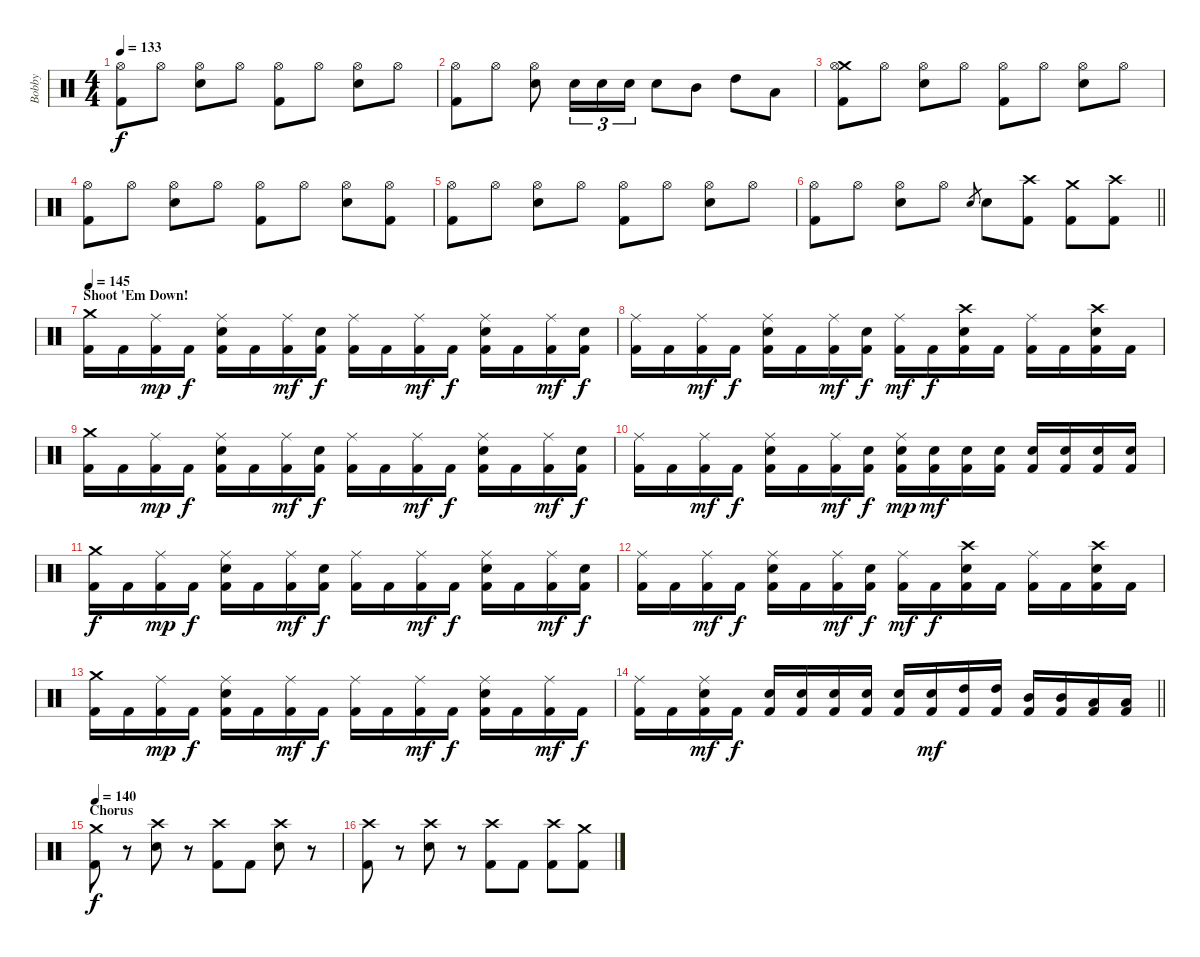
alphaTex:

\track ("Bobby" "Bobby") {instrument percussion}
\staff {score}
\articulation defaults
\ts (4 4)
\tempo 133
\clef neutral
\ks c
("Hi-Hat (open)" "Kick (hit) 2").8{dy f} "Hi-Hat (open)".8 ("Hi-Hat (open)" "Electric Snare (hit)").8 "Hi-Hat (open)".8 ("Hi-Hat (open)" "Kick (hit) 2").8 "Hi-Hat (open)".8 ("Hi-Hat (open)" "Electric Snare (hit)").8 "Hi-Hat (open)".8 |
("Hi-Hat (open)" "Kick (hit) 2").8 "Hi-Hat (open)".8 ("Hi-Hat (open)" "Electric Snare (hit)").8 "Electric Snare (hit)".16{tu (3 2)} "Electric Snare (hit)".16{tu (3 2)} "Electric Snare (hit)".16{tu (3 2)} "Electric Snare (hit)".8 "Mid Tom (hit)".8 "High Tom (hit)".8 "Low Tom (hit)".8 |
("Crash medium (hit)" "Hi-Hat (open)" "Kick (hit) 2").8 "Hi-Hat (open)".8 ("Hi-Hat (open)" "Electric Snare (hit)").8 "Hi-Hat (open)".8 ("Hi-Hat (open)" "Kick (hit) 2").8 "Hi-Hat (open)".8 ("Hi-Hat (open)" "Electric Snare (hit)").8 "Hi-Hat (open)".8 |
("Hi-Hat (open)" "Kick (hit) 2").8 "Hi-Hat (open)".8 ("Hi-Hat (open)" "Electric Snare (hit)").8 "Hi-Hat (open)".8 ("Hi-Hat (open)" "Kick (hit) 2").8 "Hi-Hat (open)".8 ("Hi-Hat (open)" "Electric Snare (hit)").8 ("Hi-Hat (open)" "Kick (hit) 2").8 |
("Hi-Hat (open)" "Kick (hit) 2").8 "Hi-Hat (open)".8 ("Hi-Hat (open)" "Electric Snare (hit)").8 "Hi-Hat (open)".8 ("Hi-Hat (open)" "Kick (hit) 2").8 "Hi-Hat (open)".8 ("Hi-Hat (open)" "Electric Snare (hit)").8 "Hi-Hat (open)".8 |
\barLineRight lightlight
("Hi-Hat (open)" "Kick (hit) 2").8 "Hi-Hat (open)".8 ("Hi-Hat (open)" "Electric Snare (hit)").8 "Hi-Hat (open)".8 "Electric Snare (hit)".8{gr} "Electric Snare (hit)".8 ("Crash high (hit)" "Kick (hit) 2").8 ("Crash medium (hit)" "Kick (hit) 2").8 ("Crash high (hit)" "Kick (hit) 2").8 |
\section ("" "Shoot 'Em Down!")
\tempo 140
\tempo 145
("Crash medium (hit)" "Kick (hit) 2").16 "Kick (hit) 2".16 ("Ride (middle)" "Kick (hit) 2").16{dy mp} "Kick (hit) 2".16{dy f} ("Ride (middle)" "Electric Snare (hit)" "Kick (hit) 2").16 "Kick (hit) 2".16 ("Ride (middle)" "Kick (hit) 2").16{dy mf} ("Electric Snare (hit)" "Kick (hit) 2").16{dy f} ("Ride (middle)" "Kick (hit) 2").16 "Kick (hit) 2".16 ("Ride (middle)" "Kick (hit) 2").16{dy mf} "Kick (hit) 2".16{dy f} ("Ride (middle)" "Electric Snare (hit)" "Kick (hit) 2").16 "Kick (hit) 2".16 ("Ride (middle)" "Kick (hit) 2").16{dy mf} ("Electric Snare (hit)" "Kick (hit) 2").16{dy f} |
("Ride (middle)" "Kick (hit) 2").16 "Kick (hit) 2".16 ("Ride (middle)" "Kick (hit) 2").16{dy mf} "Kick (hit) 2".16{dy f} ("Ride (middle)" "Electric Snare (hit)" "Kick (hit) 2").16 "Kick (hit) 2".16 ("Ride (middle)" "Kick (hit) 2").16{dy mf} ("Electric Snare (hit)" "Kick (hit) 2").16{dy f} ("Ride (middle)" "Kick (hit) 2").16{dy mf} "Kick (hit) 2".16{dy f} ("Crash high (hit)" "Electric Snare (hit)" "Kick (hit) 2").16 "Kick (hit) 2".16 ("Ride (middle)" "Kick (hit) 2").16 "Kick (hit) 2".16 ("Crash high (hit)" "Electric Snare (hit)" "Kick (hit) 2").16 "Kick (hit) 2".16 |
("Crash medium (hit)" "Kick (hit) 2").16 "Kick (hit) 2".16 ("Ride (middle)" "Kick (hit) 2").16{dy mp} "Kick (hit) 2".16{dy f} ("Ride (middle)" "Electric Snare (hit)" "Kick (hit) 2").16 "Kick (hit) 2".16 ("Ride (middle)" "Kick (hit) 2").16{dy mf} ("Electric Snare (hit)" "Kick (hit) 2").16{dy f} ("Ride (middle)" "Kick (hit) 2").16 "Kick (hit) 2".16 ("Ride (middle)" "Kick (hit) 2").16{dy mf} "Kick (hit) 2".16{dy f} ("Ride (middle)" "Electric Snare (hit)" "Kick (hit) 2").16 "Kick (hit) 2".16 ("Ride (middle)" "Kick (hit) 2").16{dy mf} ("Electric Snare (hit)" "Kick (hit) 2").16{dy f} |
("Ride (middle)" "Kick (hit) 2").16 "Kick (hit) 2".16 ("Ride (middle)" "Kick (hit) 2").16{dy mf} "Kick (hit) 2".16{dy f} ("Ride (middle)" "Electric Snare (hit)" "Kick (hit) 2").16 "Kick (hit) 2".16 ("Ride (middle)" "Kick (hit) 2").16{dy mf} ("Electric Snare (hit)" "Kick (hit) 2").16{dy f} ("Ride (middle)" "Electric Snare (hit)" "Kick (hit) 2").16{dy mp} ("Electric Snare (hit)" "Kick (hit) 2").16{dy mf} ("Electric Snare (hit)" "Kick (hit) 2").16 ("Electric Snare (hit)" "Kick (hit) 2").16 ("Electric Snare (hit)" "Kick (hit) 2").16 ("Electric Snare (hit)" "Kick (hit) 2").16 ("Electric Snare (hit)" "Kick (hit) 2").16 ("Electric Snare (hit)" "Kick (hit) 2").16 |
("Crash medium (hit)" "Kick (hit) 2").16{dy f} "Kick (hit) 2".16 ("Ride (middle)" "Kick (hit) 2").16{dy mp} "Kick (hit) 2".16{dy f} ("Ride (middle)" "Electric Snare (hit)" "Kick (hit) 2").16 "Kick (hit) 2".16 ("Ride (middle)" "Kick (hit) 2").16{dy mf} ("Electric Snare (hit)" "Kick (hit) 2").16{dy f} ("Ride (middle)" "Kick (hit) 2").16 "Kick (hit) 2".16 ("Ride (middle)" "Kick (hit) 2").16{dy mf} "Kick (hit) 2".16{dy f} ("Ride (middle)" "Electric Snare (hit)" "Kick (hit) 2").16 "Kick (hit) 2".16 ("Ride (middle)" "Kick (hit) 2").16{dy mf} ("Electric Snare (hit)" "Kick (hit) 2").16{dy f} |
("Ride (middle)" "Kick (hit) 2").16 "Kick (hit) 2".16 ("Ride (middle)" "Kick (hit) 2").16{dy mf} "Kick (hit) 2".16{dy f} ("Ride (middle)" "Electric Snare (hit)" "Kick (hit) 2").16 "Kick (hit) 2".16 ("Ride (middle)" "Kick (hit) 2").16{dy mf} ("Electric Snare (hit)" "Kick (hit) 2").16{dy f} ("Ride (middle)" "Kick (hit) 2").16{dy mf} "Kick (hit) 2".16{dy f} ("Crash high (hit)" "Electric Snare (hit)" "Kick (hit) 2").16 "Kick (hit) 2".16 ("Ride (middle)" "Kick (hit) 2").16 "Kick (hit) 2".16 ("Crash high (hit)" "Electric Snare (hit)" "Kick (hit) 2").16 "Kick (hit) 2".16 |
("Crash medium (hit)" "Kick (hit) 2").16 "Kick (hit) 2".16 ("Ride (middle)" "Kick (hit) 2").16{dy mp} "Kick (hit) 2".16{dy f} ("Ride (middle)" "Electric Snare (hit)" "Kick (hit) 2").16 "Kick (hit) 2".16 ("Ride (middle)" "Kick (hit) 2").16{dy mf} "Kick (hit) 2".16{dy f} ("Ride (middle)" "Kick (hit) 2").16 "Kick (hit) 2".16 ("Ride (middle)" "Kick (hit) 2").16{dy mf} "Kick (hit) 2".16{dy f} ("Ride (middle)" "Electric Snare (hit)" "Kick (hit) 2").16 "Kick (hit) 2".16 ("Ride (middle)" "Kick (hit) 2").16{dy mf} "Kick (hit) 2".16{dy f} |
\barLineRight lightlight
("Ride (middle)" "Kick (hit) 2").16 "Kick (hit) 2".16 ("Ride (middle)" "Electric Snare (hit)" "Kick (hit) 2").16{dy mf} "Kick (hit) 2".16{dy f} ("Electric Snare (hit)" "Kick (hit) 2").16 ("Electric Snare (hit)" "Kick (hit) 2").16 ("Electric Snare (hit)" "Kick (hit) 2").16 ("Electric Snare (hit)" "Kick (hit) 2").16 ("Electric Snare (hit)" "Kick (hit) 2").16 ("Electric Snare (hit)" "Kick (hit) 2").16{dy mf} ("High Tom (hit)" "Kick (hit) 2").16 ("High Tom (hit)" "Kick (hit) 2").16 ("Mid Tom (hit)" "Kick (hit) 2").16 ("Mid Tom (hit)" "Kick (hit) 2").16 ("Low Tom (hit)" "Kick (hit) 2").16 ("Low Tom (hit)" "Kick (hit) 2").16 |
\section ("" "Chorus")
\tempo 130
\tempo 140
("Crash medium (hit)" "Kick (hit) 2").8{dy f} r.8 ("Crash high (hit)" "Electric Snare (hit)").8 r.8 ("Crash high (hit)" "Kick (hit) 2").8 "Kick (hit) 2".8 ("Crash high (hit)" "Electric Snare (hit)").8 r.8 |
("Crash high (hit)" "Kick (hit) 2").8 r.8 ("Crash high (hit)" "Electric Snare (hit)").8 r.8 ("Crash high (hit)" "Kick (hit) 2").8 "Kick (hit) 2".8 ("Crash high (hit)" "Kick (hit) 2").8 ("Crash medium (hit)" "Kick (hit) 2").8
